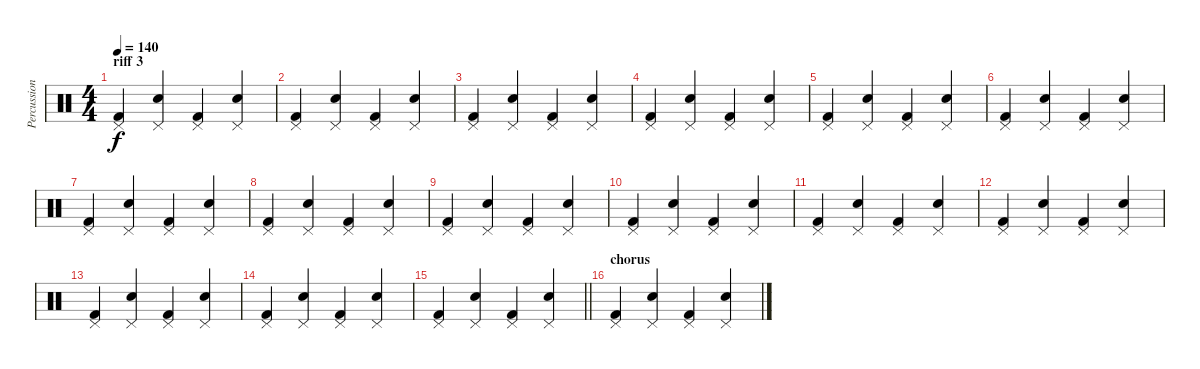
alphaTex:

\track ("Percussion" "Percussion") {instrument percussion}
\staff {score}
\articulation defaults
\ts (4 4)
\section ("" "riff 3")
\tempo 140
\clef neutral
\ks c
("Kick (hit) 2" "Pedal Hi-Hat (hit)").4{dy f} ("Snare (hit) 2" "Pedal Hi-Hat (hit)").4 ("Kick (hit) 2" "Pedal Hi-Hat (hit)").4 ("Snare (hit) 2" "Pedal Hi-Hat (hit)").4 |
("Kick (hit) 2" "Pedal Hi-Hat (hit)").4 ("Snare (hit) 2" "Pedal Hi-Hat (hit)").4 ("Kick (hit) 2" "Pedal Hi-Hat (hit)").4 ("Snare (hit) 2" "Pedal Hi-Hat (hit)").4 |
("Kick (hit) 2" "Pedal Hi-Hat (hit)").4 ("Snare (hit) 2" "Pedal Hi-Hat (hit)").4 ("Kick (hit) 2" "Pedal Hi-Hat (hit)").4 ("Snare (hit) 2" "Pedal Hi-Hat (hit)").4 |
("Kick (hit) 2" "Pedal Hi-Hat (hit)").4 ("Snare (hit) 2" "Pedal Hi-Hat (hit)").4 ("Kick (hit) 2" "Pedal Hi-Hat (hit)").4 ("Snare (hit) 2" "Pedal Hi-Hat (hit)").4 |
("Kick (hit) 2" "Pedal Hi-Hat (hit)").4 ("Snare (hit) 2" "Pedal Hi-Hat (hit)").4 ("Kick (hit) 2" "Pedal Hi-Hat (hit)").4 ("Snare (hit) 2" "Pedal Hi-Hat (hit)").4 |
("Kick (hit) 2" "Pedal Hi-Hat (hit)").4 ("Snare (hit) 2" "Pedal Hi-Hat (hit)").4 ("Kick (hit) 2" "Pedal Hi-Hat (hit)").4 ("Snare (hit) 2" "Pedal Hi-Hat (hit)").4 |
("Kick (hit) 2" "Pedal Hi-Hat (hit)").4 ("Snare (hit) 2" "Pedal Hi-Hat (hit)").4 ("Kick (hit) 2" "Pedal Hi-Hat (hit)").4 ("Snare (hit) 2" "Pedal Hi-Hat (hit)").4 |
("Kick (hit) 2" "Pedal Hi-Hat (hit)").4 ("Snare (hit) 2" "Pedal Hi-Hat (hit)").4 ("Kick (hit) 2" "Pedal Hi-Hat (hit)").4 ("Snare (hit) 2" "Pedal Hi-Hat (hit)").4 |
("Kick (hit) 2" "Pedal Hi-Hat (hit)").4 ("Snare (hit) 2" "Pedal Hi-Hat (hit)").4 ("Kick (hit) 2" "Pedal Hi-Hat (hit)").4 ("Snare (hit) 2" "Pedal Hi-Hat (hit)").4 |
("Kick (hit) 2" "Pedal Hi-Hat (hit)").4 ("Snare (hit) 2" "Pedal Hi-Hat (hit)").4 ("Kick (hit) 2" "Pedal Hi-Hat (hit)").4 ("Snare (hit) 2" "Pedal Hi-Hat (hit)").4 |
("Kick (hit) 2" "Pedal Hi-Hat (hit)").4 ("Snare (hit) 2" "Pedal Hi-Hat (hit)").4 ("Kick (hit) 2" "Pedal Hi-Hat (hit)").4 ("Snare (hit) 2" "Pedal Hi-Hat (hit)").4 |
("Kick (hit) 2" "Pedal Hi-Hat (hit)").4 ("Snare (hit) 2" "Pedal Hi-Hat (hit)").4 ("Kick (hit) 2" "Pedal Hi-Hat (hit)").4 ("Snare (hit) 2" "Pedal Hi-Hat (hit)").4 |
("Kick (hit) 2" "Pedal Hi-Hat (hit)").4 ("Snare (hit) 2" "Pedal Hi-Hat (hit)").4 ("Kick (hit) 2" "Pedal Hi-Hat (hit)").4 ("Snare (hit) 2" "Pedal Hi-Hat (hit)").4 |
("Kick (hit) 2" "Pedal Hi-Hat (hit)").4 ("Snare (hit) 2" "Pedal Hi-Hat (hit)").4 ("Kick (hit) 2" "Pedal Hi-Hat (hit)").4 ("Snare (hit) 2" "Pedal Hi-Hat (hit)").4 |
\barLineRight lightlight
("Kick (hit) 2" "Pedal Hi-Hat (hit)").4 ("Snare (hit) 2" "Pedal Hi-Hat (hit)").4 ("Kick (hit) 2" "Pedal Hi-Hat (hit)").4 ("Snare (hit) 2" "Pedal Hi-Hat (hit)").4 |
\section ("" "chorus")
("Kick (hit) 2" "Pedal Hi-Hat (hit)").4 ("Snare (hit) 2" "Pedal Hi-Hat (hit)").4 ("Kick (hit) 2" "Pedal Hi-Hat (hit)").4 ("Snare (hit) 2" "Pedal Hi-Hat (hit)").4
